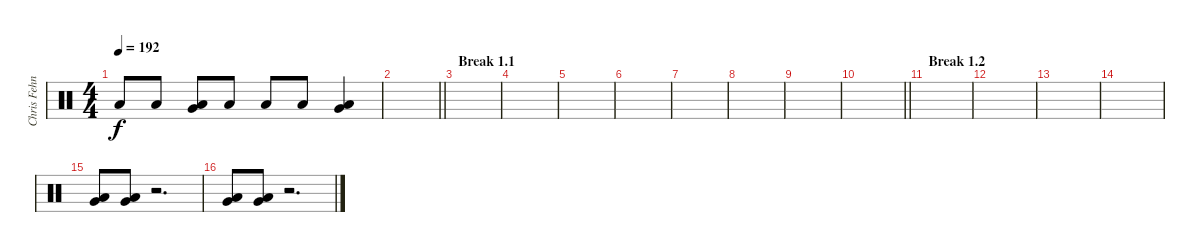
\track ("Chris Fehn" "Chris Fehn") {instrument percussion}
\staff {score}
\articulation defaults
\ts (4 4)
\tempo 192
\clef neutral
\ks c "Low Floor Tom (hit)".8{dy f} "Low Floor Tom (hit)".8
("Very Low Tom (hit)" "Low Floor Tom (hit)").8 "Low Floor Tom (hit)".8 "Low Floor Tom (hit)".8 "Low Floor Tom (hit)".8 ("Very Low Tom (hit)" "Low Floor Tom (hit)").4 |
\barLineRight lightlight
|
\section ("" "Break 1.1")
|
|
|
|
|
|
|
\barLineRight lightlight
|
\section ("" "Break 1.2")
|
|
|
|
("Very Low Tom (hit)" "Low Floor Tom (hit)").8 ("Very Low Tom (hit)" "Low Floor Tom (hit)").8 r.2{d} |
("Very Low Tom (hit)" "Low Floor Tom (hit)").8 ("Very Low Tom (hit)" "Low Floor Tom (hit)").8 r.2{d}
